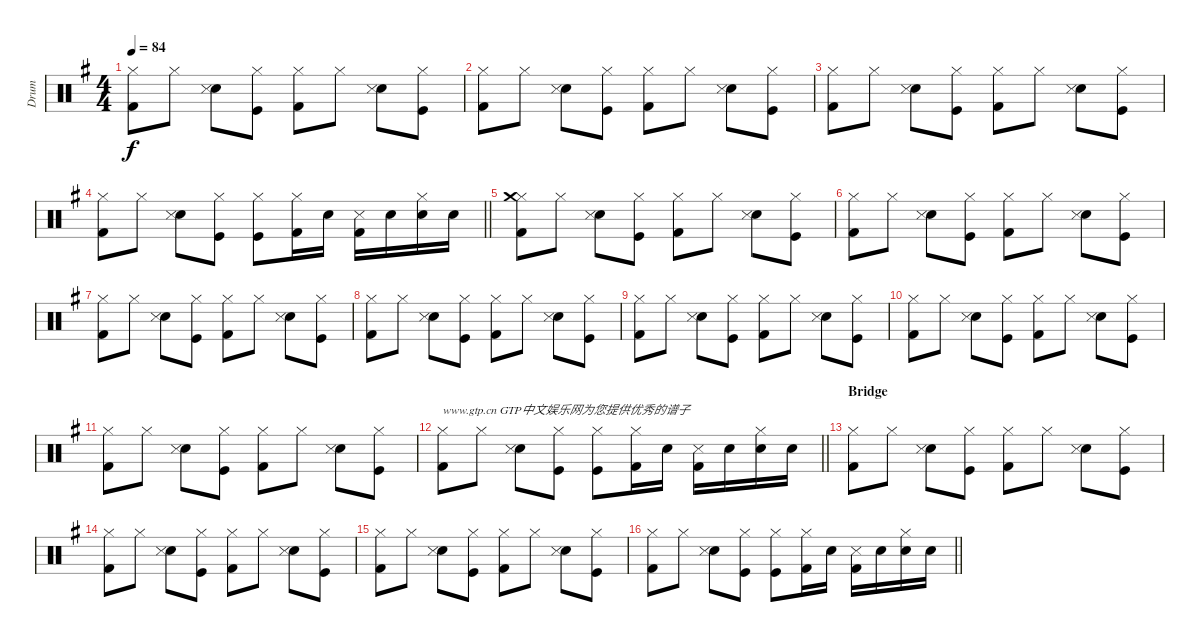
\track ("Drum" "Drum") {instrument percussion}
\staff {score}
\articulation defaults
\ts (4 4)
\tempo 84
\clef neutral
\ks g
("Kick (hit) 2" "Hi-Hat (closed)").8{dy f} "Hi-Hat (closed)".8 ("Electric Snare (hit)" "Snare (side stick) 3").8 ("Kick (hit)" "Hi-Hat (closed)").8 ("Kick (hit) 2" "Hi-Hat (closed)").8 "Hi-Hat (closed)".8 ("Electric Snare (hit)" "Snare (side stick) 3").8 ("Kick (hit)" "Hi-Hat (closed)").8 |
("Kick (hit) 2" "Hi-Hat (closed)").8 "Hi-Hat (closed)".8 ("Electric Snare (hit)" "Snare (side stick) 3").8 ("Kick (hit)" "Hi-Hat (closed)").8 ("Kick (hit) 2" "Hi-Hat (closed)").8 "Hi-Hat (closed)".8 ("Electric Snare (hit)" "Snare (side stick) 3").8 ("Kick (hit)" "Hi-Hat (closed)").8 |
("Kick (hit) 2" "Hi-Hat (closed)").8 "Hi-Hat (closed)".8 ("Electric Snare (hit)" "Snare (side stick) 3").8 ("Kick (hit)" "Hi-Hat (closed)").8 ("Kick (hit) 2" "Hi-Hat (closed)").8 "Hi-Hat (closed)".8 ("Electric Snare (hit)" "Snare (side stick) 3").8 ("Kick (hit)" "Hi-Hat (closed)").8 |
\barLineRight lightlight
("Kick (hit) 2" "Hi-Hat (closed)").8 "Hi-Hat (closed)".8 ("Electric Snare (hit)" "Snare (side stick) 3").8 ("Kick (hit)" "Hi-Hat (closed)").8 ("Kick (hit)" "Hi-Hat (closed)").8 ("Kick (hit) 2" "Hi-Hat (closed)").16 "Electric Snare (hit)".16 ("Kick (hit) 2" "Snare (side stick) 3").16 "Electric Snare (hit)".16 ("Electric Snare (hit)" "Hi-Hat (closed)").16 "Electric Snare (hit)".16 |
("Kick (hit) 2" "Hi-Hat (closed)" "Crash medium (hit)").8 "Hi-Hat (closed)".8 ("Electric Snare (hit)" "Snare (side stick) 3").8 ("Kick (hit)" "Hi-Hat (closed)").8 ("Kick (hit) 2" "Hi-Hat (closed)").8 "Hi-Hat (closed)".8 ("Electric Snare (hit)" "Snare (side stick) 3").8 ("Kick (hit)" "Hi-Hat (closed)").8 |
("Kick (hit) 2" "Hi-Hat (closed)").8 "Hi-Hat (closed)".8 ("Electric Snare (hit)" "Snare (side stick) 3").8 ("Kick (hit)" "Hi-Hat (closed)").8 ("Kick (hit) 2" "Hi-Hat (closed)").8 "Hi-Hat (closed)".8 ("Electric Snare (hit)" "Snare (side stick) 3").8 ("Kick (hit)" "Hi-Hat (closed)").8 |
("Kick (hit) 2" "Hi-Hat (closed)").8 "Hi-Hat (closed)".8 ("Electric Snare (hit)" "Snare (side stick) 3").8 ("Kick (hit)" "Hi-Hat (closed)").8 ("Kick (hit) 2" "Hi-Hat (closed)").8 "Hi-Hat (closed)".8 ("Electric Snare (hit)" "Snare (side stick) 3").8 ("Kick (hit)" "Hi-Hat (closed)").8 |
("Kick (hit) 2" "Hi-Hat (closed)").8 "Hi-Hat (closed)".8 ("Electric Snare (hit)" "Snare (side stick) 3").8 ("Kick (hit)" "Hi-Hat (closed)").8 ("Kick (hit) 2" "Hi-Hat (closed)").8 "Hi-Hat (closed)".8 ("Electric Snare (hit)" "Snare (side stick) 3").8 ("Kick (hit)" "Hi-Hat (closed)").8 |
("Kick (hit) 2" "Hi-Hat (closed)").8 "Hi-Hat (closed)".8 ("Electric Snare (hit)" "Snare (side stick) 3").8 ("Kick (hit)" "Hi-Hat (closed)").8 ("Kick (hit) 2" "Hi-Hat (closed)").8 "Hi-Hat (closed)".8 ("Electric Snare (hit)" "Snare (side stick) 3").8 ("Kick (hit)" "Hi-Hat (closed)").8 |
("Kick (hit) 2" "Hi-Hat (closed)").8 "Hi-Hat (closed)".8 ("Electric Snare (hit)" "Snare (side stick) 3").8 ("Kick (hit)" "Hi-Hat (closed)").8 ("Kick (hit) 2" "Hi-Hat (closed)").8 "Hi-Hat (closed)".8 ("Electric Snare (hit)" "Snare (side stick) 3").8 ("Kick (hit)" "Hi-Hat (closed)").8 |
("Kick (hit) 2" "Hi-Hat (closed)").8 "Hi-Hat (closed)".8 ("Electric Snare (hit)" "Snare (side stick) 3").8 ("Kick (hit)" "Hi-Hat (closed)").8 ("Kick (hit) 2" "Hi-Hat (closed)").8 "Hi-Hat (closed)".8 ("Electric Snare (hit)" "Snare (side stick) 3").8 ("Kick (hit)" "Hi-Hat (closed)").8 |
\barLineRight lightlight
("Kick (hit) 2" "Hi-Hat (closed)").8{txt "www.gtp.cn GTP中文娱乐网为您提供优秀的谱子"} "Hi-Hat (closed)".8 ("Electric Snare (hit)" "Snare (side stick) 3").8 ("Kick (hit)" "Hi-Hat (closed)").8 ("Kick (hit)" "Hi-Hat (closed)").8 ("Kick (hit) 2" "Hi-Hat (closed)").16 "Electric Snare (hit)".16 ("Kick (hit) 2" "Snare (side stick) 3").16 "Electric Snare (hit)".16 ("Electric Snare (hit)" "Hi-Hat (closed)").16 "Electric Snare (hit)".16 |
\section ("" "Bridge")
("Kick (hit) 2" "Hi-Hat (closed)").8 "Hi-Hat (closed)".8 ("Electric Snare (hit)" "Snare (side stick) 3").8 ("Kick (hit)" "Hi-Hat (closed)").8 ("Kick (hit) 2" "Hi-Hat (closed)").8 "Hi-Hat (closed)".8 ("Electric Snare (hit)" "Snare (side stick) 3").8 ("Kick (hit)" "Hi-Hat (closed)").8 |
("Kick (hit) 2" "Hi-Hat (closed)").8 "Hi-Hat (closed)".8 ("Electric Snare (hit)" "Snare (side stick) 3").8 ("Kick (hit)" "Hi-Hat (closed)").8 ("Kick (hit) 2" "Hi-Hat (closed)").8 "Hi-Hat (closed)".8 ("Electric Snare (hit)" "Snare (side stick) 3").8 ("Kick (hit)" "Hi-Hat (closed)").8 |
("Kick (hit) 2" "Hi-Hat (closed)").8 "Hi-Hat (closed)".8 ("Electric Snare (hit)" "Snare (side stick) 3").8 ("Kick (hit)" "Hi-Hat (closed)").8 ("Kick (hit) 2" "Hi-Hat (closed)").8 "Hi-Hat (closed)".8 ("Electric Snare (hit)" "Snare (side stick) 3").8 ("Kick (hit)" "Hi-Hat (closed)").8 |
\barLineRight lightlight
("Kick (hit) 2" "Hi-Hat (closed)").8 "Hi-Hat (closed)".8 ("Electric Snare (hit)" "Snare (side stick) 3").8 ("Kick (hit)" "Hi-Hat (closed)").8 ("Kick (hit)" "Hi-Hat (closed)").8 ("Kick (hit) 2" "Hi-Hat (closed)").16 "Electric Snare (hit)".16 ("Kick (hit) 2" "Snare (side stick) 3").16 "Electric Snare (hit)".16 ("Electric Snare (hit)" "Hi-Hat (closed)").16 "Electric Snare (hit)".16
